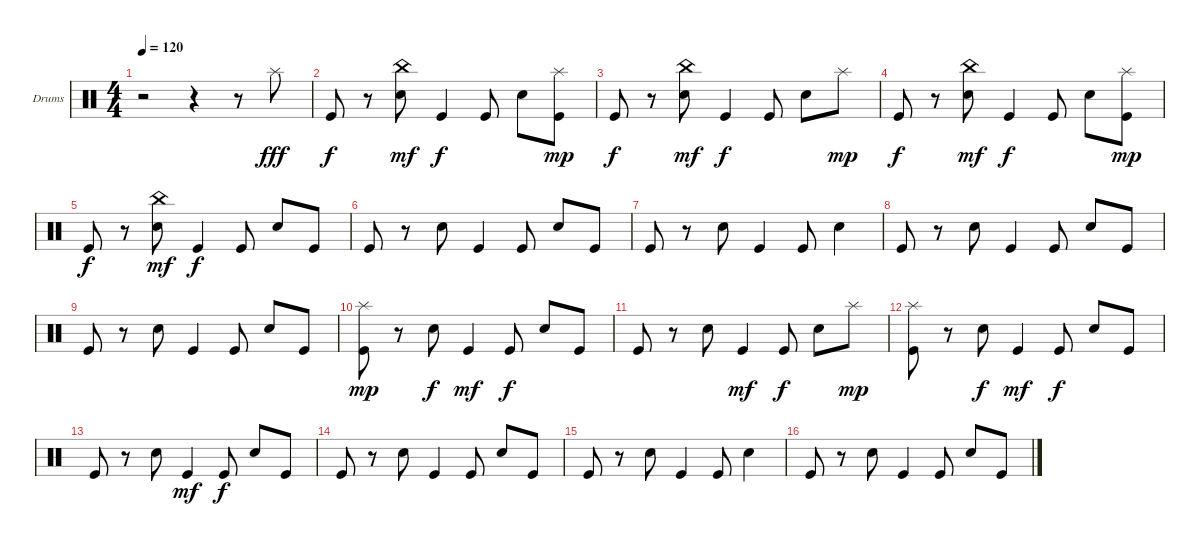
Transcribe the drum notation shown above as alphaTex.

\bracketExtendMode groupsimilarinstruments
\firstSystemTrackNameOrientation horizontal
\otherSystemsTrackNameOrientation horizontal
\track ("Drums" "Drums") {instrument percussion}
\staff {score}
\articulation defaults
\ts (4 4)
\tempo 120
\clef neutral
\ks c
r.2{dy fff} r.4 r.8 "Splash (hit)".8 |
"Kick (hit)".8{dy f} r.8 ("China (hit)" "Snare (hit) 2").8{dy mf} "Kick (hit)".4{dy f} "Kick (hit)".8 "Snare (hit) 2".8 ("Splash (hit)" "Kick (hit)").8{dy mp} |
"Kick (hit)".8{dy f} r.8 ("China (hit)" "Snare (hit) 2").8{dy mf} "Kick (hit)".4{dy f} "Kick (hit)".8 "Snare (hit) 2".8 "Splash (hit)".8{dy mp} |
"Kick (hit)".8{dy f} r.8 ("China (hit)" "Snare (hit) 2").8{dy mf} "Kick (hit)".4{dy f} "Kick (hit)".8 "Snare (hit) 2".8 ("Splash (hit)" "Kick (hit)").8{dy mp} |
"Kick (hit)".8{dy f} r.8 ("China (hit)" "Snare (hit) 2").8{dy mf} "Kick (hit)".4{dy f} "Kick (hit)".8 "Snare (hit) 2".8 "Kick (hit)".8 |
"Kick (hit)".8 r.8 "Snare (hit) 2".8 "Kick (hit)".4 "Kick (hit)".8 "Snare (hit) 2".8 "Kick (hit)".8 |
"Kick (hit)".8 r.8 "Snare (hit) 2".8 "Kick (hit)".4 "Kick (hit)".8 "Snare (hit) 2".4 |
"Kick (hit)".8 r.8 "Snare (hit) 2".8 "Kick (hit)".4 "Kick (hit)".8 "Snare (hit) 2".8 "Kick (hit)".8 |
"Kick (hit)".8 r.8 "Snare (hit) 2".8 "Kick (hit)".4 "Kick (hit)".8 "Snare (hit) 2".8 "Kick (hit)".8 |
("Splash (hit)" "Kick (hit)").8{dy mp} r.8 "Snare (hit) 2".8{dy f} "Kick (hit)".4{dy mf} "Kick (hit)".8{dy f} "Snare (hit) 2".8 "Kick (hit)".8 |
"Kick (hit)".8 r.8 "Snare (hit) 2".8 "Kick (hit)".4{dy mf} "Kick (hit)".8{dy f} "Snare (hit) 2".8 "Splash (hit)".8{dy mp} |
("Splash (hit)" "Kick (hit)").8 r.8 "Snare (hit) 2".8{dy f} "Kick (hit)".4{dy mf} "Kick (hit)".8{dy f} "Snare (hit) 2".8 "Kick (hit)".8 |
"Kick (hit)".8 r.8 "Snare (hit) 2".8 "Kick (hit)".4{dy mf} "Kick (hit)".8{dy f} "Snare (hit) 2".8 "Kick (hit)".8 |
"Kick (hit)".8 r.8 "Snare (hit) 2".8 "Kick (hit)".4 "Kick (hit)".8 "Snare (hit) 2".8 "Kick (hit)".8 |
"Kick (hit)".8 r.8 "Snare (hit) 2".8 "Kick (hit)".4 "Kick (hit)".8 "Snare (hit) 2".4 |
"Kick (hit)".8 r.8 "Snare (hit) 2".8 "Kick (hit)".4 "Kick (hit)".8 "Snare (hit) 2".8 "Kick (hit)".8
